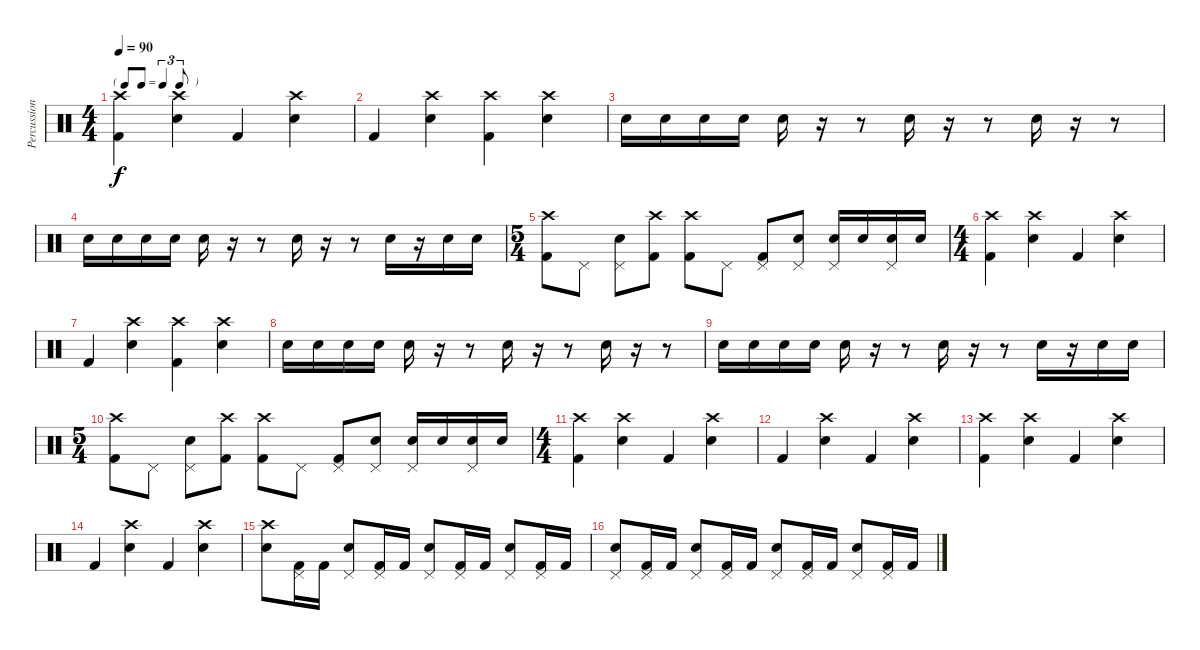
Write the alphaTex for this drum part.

\track ("Percussion" "Percussion") {instrument percussion}
\staff {score}
\articulation defaults
\ts (4 4)
\tf triplet8th
\tempo 90
\clef neutral
\ks c
("Crash high (hit)" "Kick (hit) 2").4{dy f} ("Crash high (hit)" "Snare (hit) 2").4 "Kick (hit) 2".4 ("Crash high (hit)" "Snare (hit) 2").4 |
"Kick (hit) 2".4 ("Crash high (hit)" "Snare (hit) 2").4 ("Crash high (hit)" "Kick (hit) 2").4 ("Crash high (hit)" "Snare (hit) 2").4 |
"Snare (hit) 2".16 "Snare (hit) 2".16 "Snare (hit) 2".16 "Snare (hit) 2".16 "Snare (hit) 2".16 r.16 r.8 "Snare (hit) 2".16 r.16 r.8 "Snare (hit) 2".16 r.16 r.8 |
"Snare (hit) 2".16 "Snare (hit) 2".16 "Snare (hit) 2".16 "Snare (hit) 2".16 "Snare (hit) 2".16 r.16 r.8 "Snare (hit) 2".16 r.16 r.8 "Snare (hit) 2".16 r.16 "Snare (hit) 2".16 "Snare (hit) 2".16 |
\ts (5 4)
("Crash high (hit)" "Kick (hit) 2").8 "Pedal Hi-Hat (hit)".8 ("Pedal Hi-Hat (hit)" "Snare (hit) 2").8 ("Crash high (hit)" "Kick (hit) 2").8 ("Crash high (hit)" "Kick (hit) 2").8 "Pedal Hi-Hat (hit)".8 ("Pedal Hi-Hat (hit)" "Kick (hit) 2").8 ("Pedal Hi-Hat (hit)" "Snare (hit) 2").8 ("Pedal Hi-Hat (hit)" "Snare (hit) 2").16 "Snare (hit) 2".16 ("Pedal Hi-Hat (hit)" "Snare (hit) 2").16 "Snare (hit) 2".16 |
\ts (4 4)
("Crash high (hit)" "Kick (hit) 2").4 ("Crash high (hit)" "Snare (hit) 2").4 "Kick (hit) 2".4 ("Crash high (hit)" "Snare (hit) 2").4 |
"Kick (hit) 2".4 ("Crash high (hit)" "Snare (hit) 2").4 ("Crash high (hit)" "Kick (hit) 2").4 ("Crash high (hit)" "Snare (hit) 2").4 |
"Snare (hit) 2".16 "Snare (hit) 2".16 "Snare (hit) 2".16 "Snare (hit) 2".16 "Snare (hit) 2".16 r.16 r.8 "Snare (hit) 2".16 r.16 r.8 "Snare (hit) 2".16 r.16 r.8 |
"Snare (hit) 2".16 "Snare (hit) 2".16 "Snare (hit) 2".16 "Snare (hit) 2".16 "Snare (hit) 2".16 r.16 r.8 "Snare (hit) 2".16 r.16 r.8 "Snare (hit) 2".16 r.16 "Snare (hit) 2".16 "Snare (hit) 2".16 |
\ts (5 4)
("Crash high (hit)" "Kick (hit) 2").8 "Pedal Hi-Hat (hit)".8 ("Pedal Hi-Hat (hit)" "Snare (hit) 2").8 ("Crash high (hit)" "Kick (hit) 2").8 ("Crash high (hit)" "Kick (hit) 2").8 "Pedal Hi-Hat (hit)".8 ("Pedal Hi-Hat (hit)" "Kick (hit) 2").8 ("Pedal Hi-Hat (hit)" "Snare (hit) 2").8 ("Pedal Hi-Hat (hit)" "Snare (hit) 2").16 "Snare (hit) 2".16 ("Pedal Hi-Hat (hit)" "Snare (hit) 2").16 "Snare (hit) 2".16 |
\ts (4 4)
("Crash high (hit)" "Kick (hit) 2").4 ("Crash high (hit)" "Snare (hit) 2").4 "Kick (hit) 2".4 ("Crash high (hit)" "Snare (hit) 2").4 |
"Kick (hit) 2".4 ("Crash high (hit)" "Snare (hit) 2").4 "Kick (hit) 2".4 ("Crash high (hit)" "Snare (hit) 2").4 |
("Crash high (hit)" "Kick (hit) 2").4 ("Crash high (hit)" "Snare (hit) 2").4 "Kick (hit) 2".4 ("Crash high (hit)" "Snare (hit) 2").4 |
"Kick (hit) 2".4 ("Crash high (hit)" "Snare (hit) 2").4 "Kick (hit) 2".4 ("Crash high (hit)" "Snare (hit) 2").4 |
("Crash high (hit)" "Snare (hit) 2").8 ("Pedal Hi-Hat (hit)" "Kick (hit) 2").16 "Kick (hit) 2".16 ("Pedal Hi-Hat (hit)" "Snare (hit) 2").8 ("Pedal Hi-Hat (hit)" "Kick (hit) 2").16 "Kick (hit) 2".16 ("Pedal Hi-Hat (hit)" "Snare (hit) 2").8 ("Pedal Hi-Hat (hit)" "Kick (hit) 2").16 "Kick (hit) 2".16 ("Pedal Hi-Hat (hit)" "Snare (hit) 2").8 ("Pedal Hi-Hat (hit)" "Kick (hit) 2").16 "Kick (hit) 2".16 |
("Pedal Hi-Hat (hit)" "Snare (hit) 2").8 ("Pedal Hi-Hat (hit)" "Kick (hit) 2").16 "Kick (hit) 2".16 ("Pedal Hi-Hat (hit)" "Snare (hit) 2").8 ("Pedal Hi-Hat (hit)" "Kick (hit) 2").16 "Kick (hit) 2".16 ("Pedal Hi-Hat (hit)" "Snare (hit) 2").8 ("Pedal Hi-Hat (hit)" "Kick (hit) 2").16 "Kick (hit) 2".16 ("Pedal Hi-Hat (hit)" "Snare (hit) 2").8 ("Pedal Hi-Hat (hit)" "Kick (hit) 2").16 "Kick (hit) 2".16
